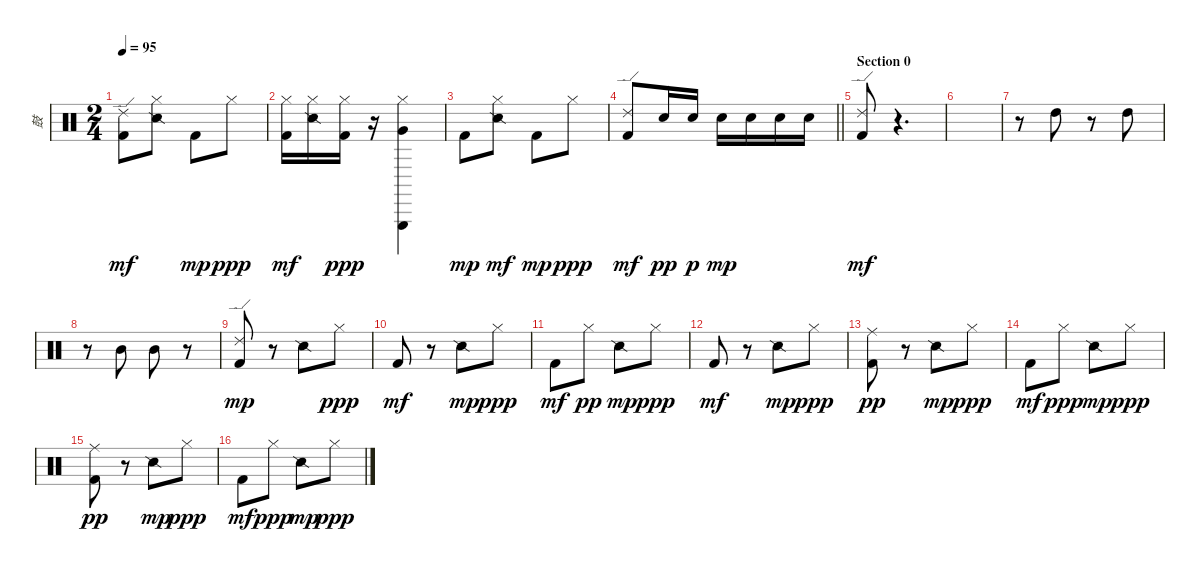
\track ("鼓" "鼓") {instrument percussion}
\staff {score}
\articulation defaults
\ts (2 4)
\tempo 95
\clef neutral
\ks c
("Kick (hit) 2" "Ride (edge) 2").8{dy mf} ("Snare (side stick) 2" "Hi-Hat (closed)").8 "Kick (hit) 2".8{dy mp} "Hi-Hat (closed)".8{dy ppp} |
("Kick (hit) 2" "Hi-Hat (closed)").16{dy mf} ("Snare (side stick) 2" "Hi-Hat (closed)").16 ("Kick (hit) 2" "Hi-Hat (closed)").16{dy ppp} r.16 ("Triangle (hit)" "Very Low Tom (hit)" "Hi-Hat (closed)").4 |
"Kick (hit) 2".8{dy mp} ("Snare (side stick) 2" "Hi-Hat (closed)").8{dy mf} "Kick (hit) 2".8{dy mp} "Hi-Hat (closed)".8{dy ppp} |
\barLineRight lightlight
("Kick (hit) 2" "Ride (edge) 2").8{dy mf} "Electric Snare (hit)".16{dy pp} "Electric Snare (hit)".16{dy p} "Electric Snare (hit)".16{dy mp} "Electric Snare (hit)".16 "Electric Snare (hit)".16 "Electric Snare (hit)".16 |
\section ("" "Section 0")
("Kick (hit) 2" "Ride (edge) 2").8{dy mf} r.4{d} |
|
r.8 "High Tom (hit)".8 r.8 "High Tom (hit)".8 |
r.8 "Mid Tom (hit)".8 "Mid Tom (hit)".8 r.8 |
("Kick (hit) 2" "Ride (edge) 2").8{dy mp} r.8 "Snare (side stick) 2".8 "Hi-Hat (closed)".8{dy ppp} |
"Kick (hit) 2".8{dy mf} r.8 "Snare (side stick) 2".8{dy mp} "Hi-Hat (closed)".8{dy ppp} |
"Kick (hit) 2".8{dy mf} "Hi-Hat (closed)".8{dy pp} "Snare (side stick) 2".8{dy mp} "Hi-Hat (closed)".8{dy ppp} |
"Kick (hit) 2".8{dy mf} r.8 "Snare (side stick) 2".8{dy mp} "Hi-Hat (closed)".8{dy ppp} |
("Kick (hit) 2" "Ride (middle)").8{dy pp} r.8 "Snare (side stick) 2".8{dy mp} "Hi-Hat (closed)".8{dy ppp} |
"Kick (hit) 2".8{dy mf} "Hi-Hat (closed)".8{dy ppp} "Snare (side stick) 2".8{dy mp} "Hi-Hat (closed)".8{dy ppp} |
("Kick (hit) 2" "Ride (middle)").8{dy pp} r.8 "Snare (side stick) 2".8{dy mp} "Hi-Hat (closed)".8{dy ppp} |
"Kick (hit) 2".8{dy mf} "Hi-Hat (closed)".8{dy ppp} "Snare (side stick) 2".8{dy mp} "Hi-Hat (closed)".8{dy ppp}
